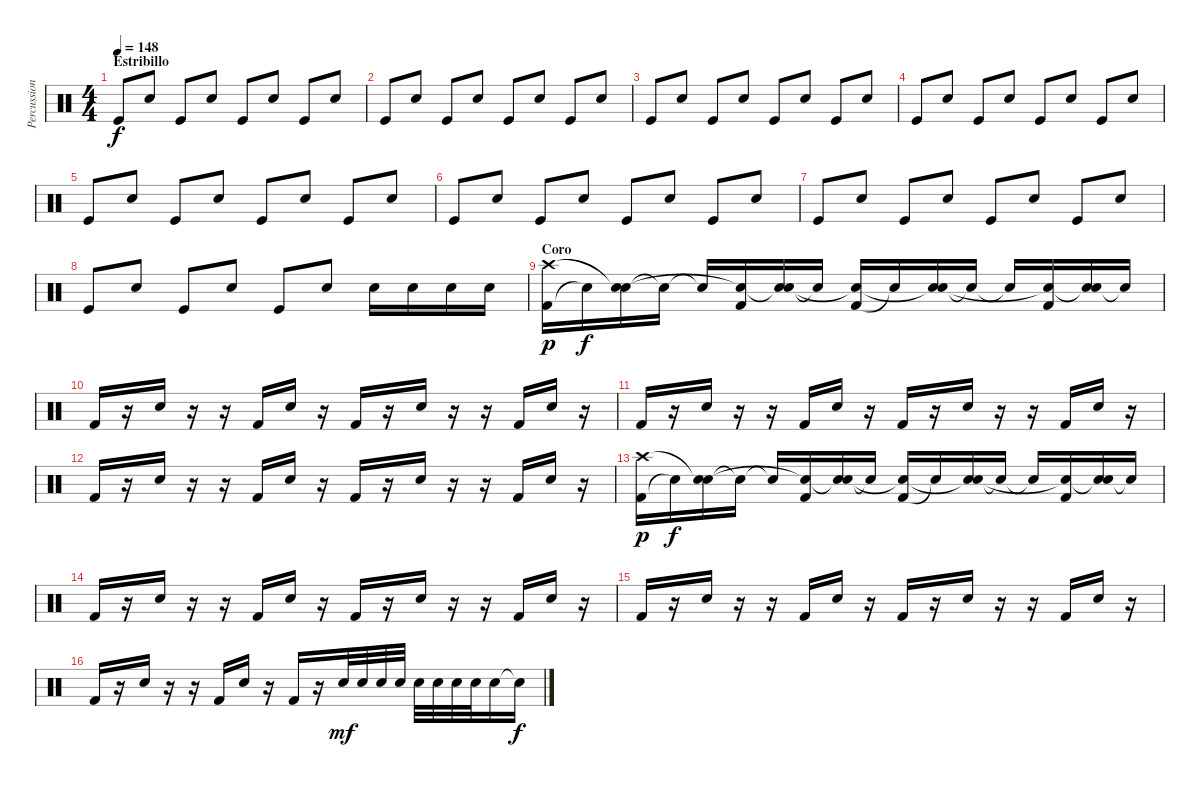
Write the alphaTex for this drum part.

\track ("Percussion" "Percussion") {instrument percussion}
\staff {score}
\articulation defaults
\ts (4 4)
\section ("" "Estribillo")
\tempo 148
\clef neutral
\ks c "Kick (hit)".8{dy f} "Electric Snare (hit)".8 "Kick (hit)".8 "Electric Snare (hit)".8 "Kick (hit)".8 "Electric Snare (hit)".8 "Kick (hit)".8 "Electric Snare (hit)".8
|
"Kick (hit)".8 "Electric Snare (hit)".8 "Kick (hit)".8 "Electric Snare (hit)".8 "Kick (hit)".8 "Electric Snare (hit)".8 "Kick (hit)".8 "Electric Snare (hit)".8 |
"Kick (hit)".8 "Electric Snare (hit)".8 "Kick (hit)".8 "Electric Snare (hit)".8 "Kick (hit)".8 "Electric Snare (hit)".8 "Kick (hit)".8 "Electric Snare (hit)".8 |
"Kick (hit)".8 "Electric Snare (hit)".8 "Kick (hit)".8 "Electric Snare (hit)".8 "Kick (hit)".8 "Electric Snare (hit)".8 "Kick (hit)".8 "Electric Snare (hit)".8 |
"Kick (hit)".8 "Electric Snare (hit)".8 "Kick (hit)".8 "Electric Snare (hit)".8 "Kick (hit)".8 "Electric Snare (hit)".8 "Kick (hit)".8 "Electric Snare (hit)".8 |
"Kick (hit)".8 "Electric Snare (hit)".8 "Kick (hit)".8 "Electric Snare (hit)".8 "Kick (hit)".8 "Electric Snare (hit)".8 "Kick (hit)".8 "Electric Snare (hit)".8 |
"Kick (hit)".8 "Electric Snare (hit)".8 "Kick (hit)".8 "Electric Snare (hit)".8 "Kick (hit)".8 "Electric Snare (hit)".8 "Kick (hit)".8 "Electric Snare (hit)".8 |
"Kick (hit)".8 "Electric Snare (hit)".8 "Kick (hit)".8 "Electric Snare (hit)".8 "Kick (hit)".8 "Electric Snare (hit)".8 "Electric Snare (hit)".16 "Electric Snare (hit)".16 "Electric Snare (hit)".16 "Electric Snare (hit)".16 |
\section ("" "Coro")
("Kick (hit) 2" "Crash high (hit)").16{dy p} "Snare (hit)"{t}.16{dy f} ("Electric Snare (hit)" "Snare (hit)"{t}).16 "Snare (hit)"{t}.16 "Snare (hit)"{t}.16 ("Kick (hit) 2" "Snare (hit)"{t}).16 ("Electric Snare (hit)" "Snare (hit)"{t}).16 "Snare (hit)"{t}.16 ("Kick (hit) 2" "Snare (hit)"{t}).16 "Snare (hit)"{t}.16 ("Electric Snare (hit)" "Snare (hit)"{t}).16 "Snare (hit)"{t}.16 "Snare (hit)"{t}.16 ("Kick (hit) 2" "Snare (hit)"{t}).16 ("Electric Snare (hit)" "Snare (hit)"{t}).16 "Snare (hit)"{t}.16 |
"Kick (hit) 2".16 r.16 "Electric Snare (hit)".16 r.16 r.16 "Kick (hit) 2".16 "Electric Snare (hit)".16 r.16 "Kick (hit) 2".16 r.16 "Electric Snare (hit)".16 r.16 r.16 "Kick (hit) 2".16 "Electric Snare (hit)".16 r.16 |
"Kick (hit) 2".16 r.16 "Electric Snare (hit)".16 r.16 r.16 "Kick (hit) 2".16 "Electric Snare (hit)".16 r.16 "Kick (hit) 2".16 r.16 "Electric Snare (hit)".16 r.16 r.16 "Kick (hit) 2".16 "Electric Snare (hit)".16 r.16 |
"Kick (hit) 2".16 r.16 "Electric Snare (hit)".16 r.16 r.16 "Kick (hit) 2".16 "Electric Snare (hit)".16 r.16 "Kick (hit) 2".16 r.16 "Electric Snare (hit)".16 r.16 r.16 "Kick (hit) 2".16 "Electric Snare (hit)".16 r.16 |
("Kick (hit) 2" "Crash high (hit)").16{dy p} "Snare (hit)"{t}.16{dy f} ("Electric Snare (hit)" "Snare (hit)"{t}).16 "Snare (hit)"{t}.16 "Snare (hit)"{t}.16 ("Kick (hit) 2" "Snare (hit)"{t}).16 ("Electric Snare (hit)" "Snare (hit)"{t}).16 "Snare (hit)"{t}.16 ("Kick (hit) 2" "Snare (hit)"{t}).16 "Snare (hit)"{t}.16 ("Electric Snare (hit)" "Snare (hit)"{t}).16 "Snare (hit)"{t}.16 "Snare (hit)"{t}.16 ("Kick (hit) 2" "Snare (hit)"{t}).16 ("Electric Snare (hit)" "Snare (hit)"{t}).16 "Snare (hit)"{t}.16 |
"Kick (hit) 2".16 r.16 "Electric Snare (hit)".16 r.16 r.16 "Kick (hit) 2".16 "Electric Snare (hit)".16 r.16 "Kick (hit) 2".16 r.16 "Electric Snare (hit)".16 r.16 r.16 "Kick (hit) 2".16 "Electric Snare (hit)".16 r.16 |
"Kick (hit) 2".16 r.16 "Electric Snare (hit)".16 r.16 r.16 "Kick (hit) 2".16 "Electric Snare (hit)".16 r.16 "Kick (hit) 2".16 r.16 "Electric Snare (hit)".16 r.16 r.16 "Kick (hit) 2".16 "Electric Snare (hit)".16 r.16 |
"Kick (hit) 2".16 r.16 "Electric Snare (hit)".16 r.16 r.16 "Kick (hit) 2".16 "Electric Snare (hit)".16 r.16 "Kick (hit) 2".16 r.16 "Electric Snare (hit)".32{dy mf} "Electric Snare (hit)".32 "Electric Snare (hit)".32 "Electric Snare (hit)".32 "Electric Snare (hit)".32 "Electric Snare (hit)".32 "Electric Snare (hit)".32 "Electric Snare (hit)".32 "Electric Snare (hit)".16 "Electric Snare (hit)"{t}.16{dy f}
